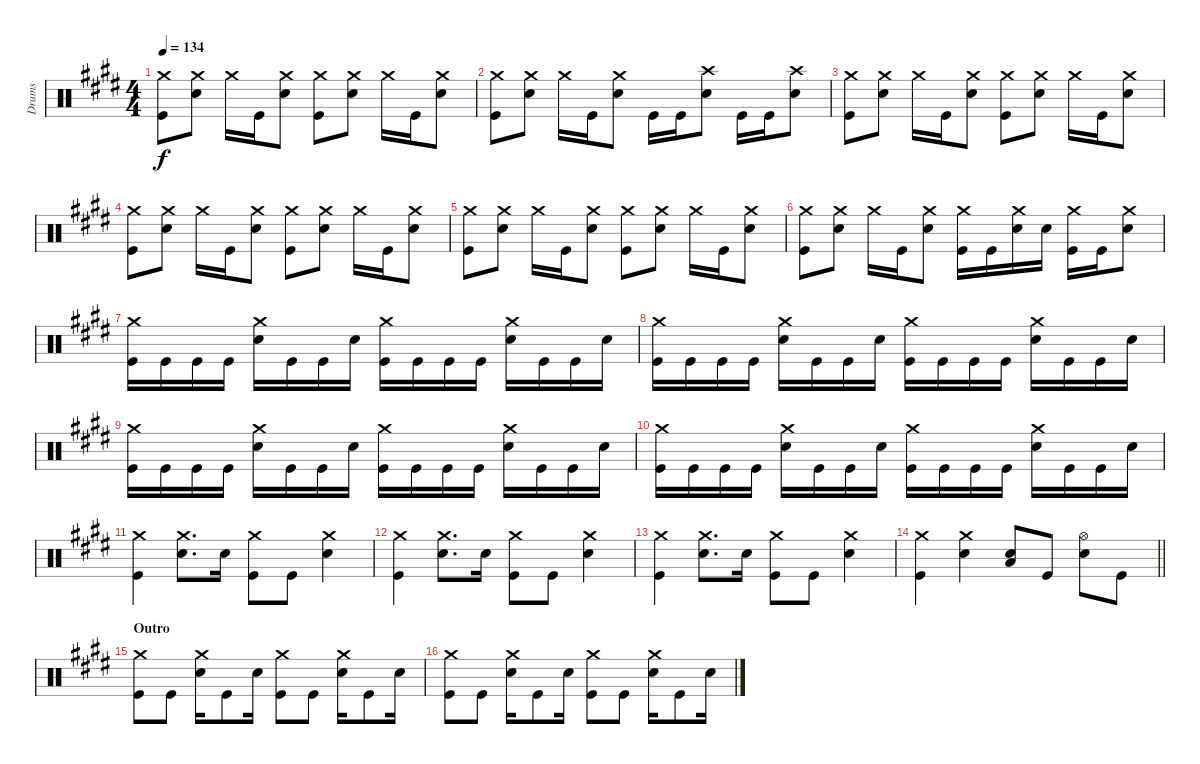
\track ("Drums" "Drums") {instrument percussion}
\staff {score}
\articulation defaults
\ts (4 4)
\tempo 134
\clef neutral
\ks e
("Crash medium (hit)" "Kick (hit)").8{dy f} ("Crash medium (hit)" "Snare (hit) 2").8 "Crash medium (hit)".16 "Kick (hit)".16 ("Crash medium (hit)" "Snare (hit) 2").8 ("Crash medium (hit)" "Kick (hit)").8 ("Crash medium (hit)" "Snare (hit) 2").8 "Crash medium (hit)".16 "Kick (hit)".16 ("Crash medium (hit)" "Snare (hit) 2").8 |
("Crash medium (hit)" "Kick (hit)").8 ("Crash medium (hit)" "Snare (hit) 2").8 "Crash medium (hit)".16 "Kick (hit)".16 ("Crash medium (hit)" "Snare (hit) 2").8 "Kick (hit)".16 "Kick (hit)".16 ("Crash high (hit)" "Snare (hit) 2").8 "Kick (hit)".16 "Kick (hit)".16 ("Crash high (hit)" "Snare (hit) 2").8 |
("Crash medium (hit)" "Kick (hit)").8 ("Crash medium (hit)" "Snare (hit) 2").8 "Crash medium (hit)".16 "Kick (hit)".16 ("Crash medium (hit)" "Snare (hit) 2").8 ("Crash medium (hit)" "Kick (hit)").8 ("Crash medium (hit)" "Snare (hit) 2").8 "Crash medium (hit)".16 "Kick (hit)".16 ("Crash medium (hit)" "Snare (hit) 2").8 |
("Crash medium (hit)" "Kick (hit)").8 ("Crash medium (hit)" "Snare (hit) 2").8 "Crash medium (hit)".16 "Kick (hit)".16 ("Crash medium (hit)" "Snare (hit) 2").8 ("Crash medium (hit)" "Kick (hit)").8 ("Crash medium (hit)" "Snare (hit) 2").8 "Crash medium (hit)".16 "Kick (hit)".16 ("Crash medium (hit)" "Snare (hit) 2").8 |
("Crash medium (hit)" "Kick (hit)").8 ("Crash medium (hit)" "Snare (hit) 2").8 "Crash medium (hit)".16 "Kick (hit)".16 ("Crash medium (hit)" "Snare (hit) 2").8 ("Crash medium (hit)" "Kick (hit)").8 ("Crash medium (hit)" "Snare (hit) 2").8 "Crash medium (hit)".16 "Kick (hit)".16 ("Crash medium (hit)" "Snare (hit) 2").8 |
("Crash medium (hit)" "Kick (hit)").8 ("Crash medium (hit)" "Snare (hit) 2").8 "Crash medium (hit)".16 "Kick (hit)".16 ("Crash medium (hit)" "Snare (hit) 2").8 ("Crash medium (hit)" "Kick (hit)").16 "Kick (hit)".16 ("Crash medium (hit)" "Snare (hit) 2").16 "Snare (hit) 2".16 ("Crash medium (hit)" "Kick (hit)").16 "Kick (hit)".16 ("Crash medium (hit)" "Snare (hit) 2").8 |
("Crash medium (hit)" "Kick (hit)").16 "Kick (hit)".16 "Kick (hit)".16 "Kick (hit)".16 ("Crash medium (hit)" "Snare (hit) 2").16 "Kick (hit)".16 "Kick (hit)".16 "Snare (hit) 2".16 ("Crash medium (hit)" "Kick (hit)").16 "Kick (hit)".16 "Kick (hit)".16 "Kick (hit)".16 ("Crash medium (hit)" "Snare (hit) 2").16 "Kick (hit)".16 "Kick (hit)".16 "Snare (hit) 2".16 |
("Crash medium (hit)" "Kick (hit)").16 "Kick (hit)".16 "Kick (hit)".16 "Kick (hit)".16 ("Crash medium (hit)" "Snare (hit) 2").16 "Kick (hit)".16 "Kick (hit)".16 "Snare (hit) 2".16 ("Crash medium (hit)" "Kick (hit)").16 "Kick (hit)".16 "Kick (hit)".16 "Kick (hit)".16 ("Crash medium (hit)" "Snare (hit) 2").16 "Kick (hit)".16 "Kick (hit)".16 "Snare (hit) 2".16 |
("Crash medium (hit)" "Kick (hit)").16 "Kick (hit)".16 "Kick (hit)".16 "Kick (hit)".16 ("Crash medium (hit)" "Snare (hit) 2").16 "Kick (hit)".16 "Kick (hit)".16 "Snare (hit) 2".16 ("Crash medium (hit)" "Kick (hit)").16 "Kick (hit)".16 "Kick (hit)".16 "Kick (hit)".16 ("Crash medium (hit)" "Snare (hit) 2").16 "Kick (hit)".16 "Kick (hit)".16 "Snare (hit) 2".16 |
("Crash medium (hit)" "Kick (hit)").16 "Kick (hit)".16 "Kick (hit)".16 "Kick (hit)".16 ("Crash medium (hit)" "Snare (hit) 2").16 "Kick (hit)".16 "Kick (hit)".16 "Snare (hit) 2".16 ("Crash medium (hit)" "Kick (hit)").16 "Kick (hit)".16 "Kick (hit)".16 "Kick (hit)".16 ("Crash medium (hit)" "Snare (hit) 2").16 "Kick (hit)".16 "Kick (hit)".16 "Snare (hit) 2".16 |
("Crash medium (hit)" "Kick (hit)").4 ("Crash medium (hit)" "Snare (hit) 2").8{d} "Snare (hit) 2".16 ("Crash medium (hit)" "Kick (hit)").8 "Kick (hit)".8 ("Crash medium (hit)" "Snare (hit) 2").4 |
("Crash medium (hit)" "Kick (hit)").4 ("Crash medium (hit)" "Snare (hit) 2").8{d} "Snare (hit) 2".16 ("Crash medium (hit)" "Kick (hit)").8 "Kick (hit)".8 ("Crash medium (hit)" "Snare (hit) 2").4 |
("Crash medium (hit)" "Kick (hit)").4 ("Crash medium (hit)" "Snare (hit) 2").8{d} "Snare (hit) 2".16 ("Crash medium (hit)" "Kick (hit)").8 "Kick (hit)".8 ("Crash medium (hit)" "Snare (hit) 2").4 |
\barLineRight lightlight
("Crash medium (hit)" "Kick (hit)").4 ("Crash medium (hit)" "Snare (hit) 2").4 ("Snare (hit) 2" "Low Floor Tom (hit)").8 "Kick (hit)".8 ("Hi-Hat (open)" "Snare (hit) 2").8 "Kick (hit)".8 |
\section ("" "Outro")
("Crash medium (hit)" "Kick (hit)").8 "Kick (hit)".8 ("Crash medium (hit)" "Snare (hit) 2").16 "Kick (hit)".8 "Snare (hit) 2".16 ("Crash medium (hit)" "Kick (hit)").8 "Kick (hit)".8 ("Crash medium (hit)" "Snare (hit) 2").16 "Kick (hit)".8 "Snare (hit) 2".16 |
("Crash medium (hit)" "Kick (hit)").8 "Kick (hit)".8 ("Crash medium (hit)" "Snare (hit) 2").16 "Kick (hit)".8 "Snare (hit) 2".16 ("Crash medium (hit)" "Kick (hit)").8 "Kick (hit)".8 ("Crash medium (hit)" "Snare (hit) 2").16 "Kick (hit)".8 "Snare (hit) 2".16
